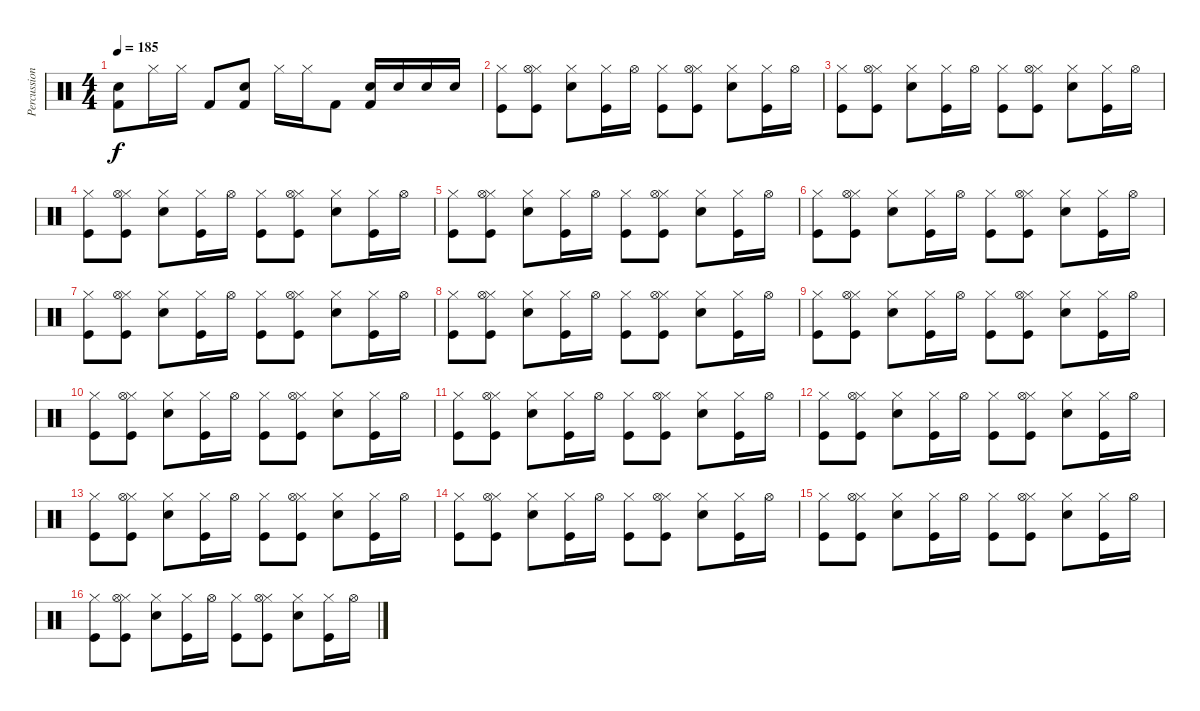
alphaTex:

\track ("Percussion" "Percussion") {instrument percussion}
\staff {score}
\articulation defaults
\ts (4 4)
\tempo 185
\clef neutral
\ks c
("Snare (hit) 2" "Kick (hit) 2").8{dy f} "Hi-Hat (closed)".16 "Hi-Hat (closed)".16 "Kick (hit) 2".8 ("Snare (hit) 2" "Kick (hit) 2").8 "Hi-Hat (closed)".16 "Hi-Hat (closed)".16 "Kick (hit) 2".8 ("Snare (hit) 2" "Kick (hit) 2").16 "Electric Snare (hit)".16 "Electric Snare (hit)".16 "Electric Snare (hit)".16 |
("Kick (hit)" "Hi-Hat (closed)").8 ("Kick (hit)" "Hi-Hat (closed)" "Hi-Hat (open)").8 ("Snare (hit) 2" "Hi-Hat (closed)").8 ("Kick (hit)" "Hi-Hat (closed)").16 "Hi-Hat (open)".16 ("Kick (hit)" "Hi-Hat (closed)").8 ("Kick (hit)" "Hi-Hat (closed)" "Hi-Hat (open)").8 ("Snare (hit) 2" "Hi-Hat (closed)").8 ("Kick (hit)" "Hi-Hat (closed)").16 "Hi-Hat (open)".16 |
("Kick (hit)" "Hi-Hat (closed)").8 ("Kick (hit)" "Hi-Hat (closed)" "Hi-Hat (open)").8 ("Snare (hit) 2" "Hi-Hat (closed)").8 ("Kick (hit)" "Hi-Hat (closed)").16 "Hi-Hat (open)".16 ("Kick (hit)" "Hi-Hat (closed)").8 ("Kick (hit)" "Hi-Hat (closed)" "Hi-Hat (open)").8 ("Snare (hit) 2" "Hi-Hat (closed)").8 ("Kick (hit)" "Hi-Hat (closed)").16 "Hi-Hat (open)".16 |
("Kick (hit)" "Hi-Hat (closed)").8 ("Kick (hit)" "Hi-Hat (closed)" "Hi-Hat (open)").8 ("Snare (hit) 2" "Hi-Hat (closed)").8 ("Kick (hit)" "Hi-Hat (closed)").16 "Hi-Hat (open)".16 ("Kick (hit)" "Hi-Hat (closed)").8 ("Kick (hit)" "Hi-Hat (closed)" "Hi-Hat (open)").8 ("Snare (hit) 2" "Hi-Hat (closed)").8 ("Kick (hit)" "Hi-Hat (closed)").16 "Hi-Hat (open)".16 |
("Kick (hit)" "Hi-Hat (closed)").8 ("Kick (hit)" "Hi-Hat (closed)" "Hi-Hat (open)").8 ("Snare (hit) 2" "Hi-Hat (closed)").8 ("Kick (hit)" "Hi-Hat (closed)").16 "Hi-Hat (open)".16 ("Kick (hit)" "Hi-Hat (closed)").8 ("Kick (hit)" "Hi-Hat (closed)" "Hi-Hat (open)").8 ("Snare (hit) 2" "Hi-Hat (closed)").8 ("Kick (hit)" "Hi-Hat (closed)").16 "Hi-Hat (open)".16 |
("Kick (hit)" "Hi-Hat (closed)").8 ("Kick (hit)" "Hi-Hat (closed)" "Hi-Hat (open)").8 ("Snare (hit) 2" "Hi-Hat (closed)").8 ("Kick (hit)" "Hi-Hat (closed)").16 "Hi-Hat (open)".16 ("Kick (hit)" "Hi-Hat (closed)").8 ("Kick (hit)" "Hi-Hat (closed)" "Hi-Hat (open)").8 ("Snare (hit) 2" "Hi-Hat (closed)").8 ("Kick (hit)" "Hi-Hat (closed)").16 "Hi-Hat (open)".16 |
("Kick (hit)" "Hi-Hat (closed)").8 ("Kick (hit)" "Hi-Hat (closed)" "Hi-Hat (open)").8 ("Snare (hit) 2" "Hi-Hat (closed)").8 ("Kick (hit)" "Hi-Hat (closed)").16 "Hi-Hat (open)".16 ("Kick (hit)" "Hi-Hat (closed)").8 ("Kick (hit)" "Hi-Hat (closed)" "Hi-Hat (open)").8 ("Snare (hit) 2" "Hi-Hat (closed)").8 ("Kick (hit)" "Hi-Hat (closed)").16 "Hi-Hat (open)".16 |
("Kick (hit)" "Hi-Hat (closed)").8 ("Kick (hit)" "Hi-Hat (closed)" "Hi-Hat (open)").8 ("Snare (hit) 2" "Hi-Hat (closed)").8 ("Kick (hit)" "Hi-Hat (closed)").16 "Hi-Hat (open)".16 ("Kick (hit)" "Hi-Hat (closed)").8 ("Kick (hit)" "Hi-Hat (closed)" "Hi-Hat (open)").8 ("Snare (hit) 2" "Hi-Hat (closed)").8 ("Kick (hit)" "Hi-Hat (closed)").16 "Hi-Hat (open)".16 |
("Kick (hit)" "Hi-Hat (closed)").8 ("Kick (hit)" "Hi-Hat (closed)" "Hi-Hat (open)").8 ("Snare (hit) 2" "Hi-Hat (closed)").8 ("Kick (hit)" "Hi-Hat (closed)").16 "Hi-Hat (open)".16 ("Kick (hit)" "Hi-Hat (closed)").8 ("Kick (hit)" "Hi-Hat (closed)" "Hi-Hat (open)").8 ("Snare (hit) 2" "Hi-Hat (closed)").8 ("Kick (hit)" "Hi-Hat (closed)").16 "Hi-Hat (open)".16 |
("Kick (hit)" "Hi-Hat (closed)").8 ("Kick (hit)" "Hi-Hat (closed)" "Hi-Hat (open)").8 ("Snare (hit) 2" "Hi-Hat (closed)").8 ("Kick (hit)" "Hi-Hat (closed)").16 "Hi-Hat (open)".16 ("Kick (hit)" "Hi-Hat (closed)").8 ("Kick (hit)" "Hi-Hat (closed)" "Hi-Hat (open)").8 ("Snare (hit) 2" "Hi-Hat (closed)").8 ("Kick (hit)" "Hi-Hat (closed)").16 "Hi-Hat (open)".16 |
("Kick (hit)" "Hi-Hat (closed)").8 ("Kick (hit)" "Hi-Hat (closed)" "Hi-Hat (open)").8 ("Snare (hit) 2" "Hi-Hat (closed)").8 ("Kick (hit)" "Hi-Hat (closed)").16 "Hi-Hat (open)".16 ("Kick (hit)" "Hi-Hat (closed)").8 ("Kick (hit)" "Hi-Hat (closed)" "Hi-Hat (open)").8 ("Snare (hit) 2" "Hi-Hat (closed)").8 ("Kick (hit)" "Hi-Hat (closed)").16 "Hi-Hat (open)".16 |
("Kick (hit)" "Hi-Hat (closed)").8 ("Kick (hit)" "Hi-Hat (closed)" "Hi-Hat (open)").8 ("Snare (hit) 2" "Hi-Hat (closed)").8 ("Kick (hit)" "Hi-Hat (closed)").16 "Hi-Hat (open)".16 ("Kick (hit)" "Hi-Hat (closed)").8 ("Kick (hit)" "Hi-Hat (closed)" "Hi-Hat (open)").8 ("Snare (hit) 2" "Hi-Hat (closed)").8 ("Kick (hit)" "Hi-Hat (closed)").16 "Hi-Hat (open)".16 |
("Kick (hit)" "Hi-Hat (closed)").8 ("Kick (hit)" "Hi-Hat (closed)" "Hi-Hat (open)").8 ("Snare (hit) 2" "Hi-Hat (closed)").8 ("Kick (hit)" "Hi-Hat (closed)").16 "Hi-Hat (open)".16 ("Kick (hit)" "Hi-Hat (closed)").8 ("Kick (hit)" "Hi-Hat (closed)" "Hi-Hat (open)").8 ("Snare (hit) 2" "Hi-Hat (closed)").8 ("Kick (hit)" "Hi-Hat (closed)").16 "Hi-Hat (open)".16 |
("Kick (hit)" "Hi-Hat (closed)").8 ("Kick (hit)" "Hi-Hat (closed)" "Hi-Hat (open)").8 ("Snare (hit) 2" "Hi-Hat (closed)").8 ("Kick (hit)" "Hi-Hat (closed)").16 "Hi-Hat (open)".16 ("Kick (hit)" "Hi-Hat (closed)").8 ("Kick (hit)" "Hi-Hat (closed)" "Hi-Hat (open)").8 ("Snare (hit) 2" "Hi-Hat (closed)").8 ("Kick (hit)" "Hi-Hat (closed)").16 "Hi-Hat (open)".16 |
("Kick (hit)" "Hi-Hat (closed)").8 ("Kick (hit)" "Hi-Hat (closed)" "Hi-Hat (open)").8 ("Snare (hit) 2" "Hi-Hat (closed)").8 ("Kick (hit)" "Hi-Hat (closed)").16 "Hi-Hat (open)".16 ("Kick (hit)" "Hi-Hat (closed)").8 ("Kick (hit)" "Hi-Hat (closed)" "Hi-Hat (open)").8 ("Snare (hit) 2" "Hi-Hat (closed)").8 ("Kick (hit)" "Hi-Hat (closed)").16 "Hi-Hat (open)".16 |
("Kick (hit)" "Hi-Hat (closed)").8 ("Kick (hit)" "Hi-Hat (closed)" "Hi-Hat (open)").8 ("Snare (hit) 2" "Hi-Hat (closed)").8 ("Kick (hit)" "Hi-Hat (closed)").16 "Hi-Hat (open)".16 ("Kick (hit)" "Hi-Hat (closed)").8 ("Kick (hit)" "Hi-Hat (closed)" "Hi-Hat (open)").8 ("Snare (hit) 2" "Hi-Hat (closed)").8 ("Kick (hit)" "Hi-Hat (closed)").16 "Hi-Hat (open)".16
